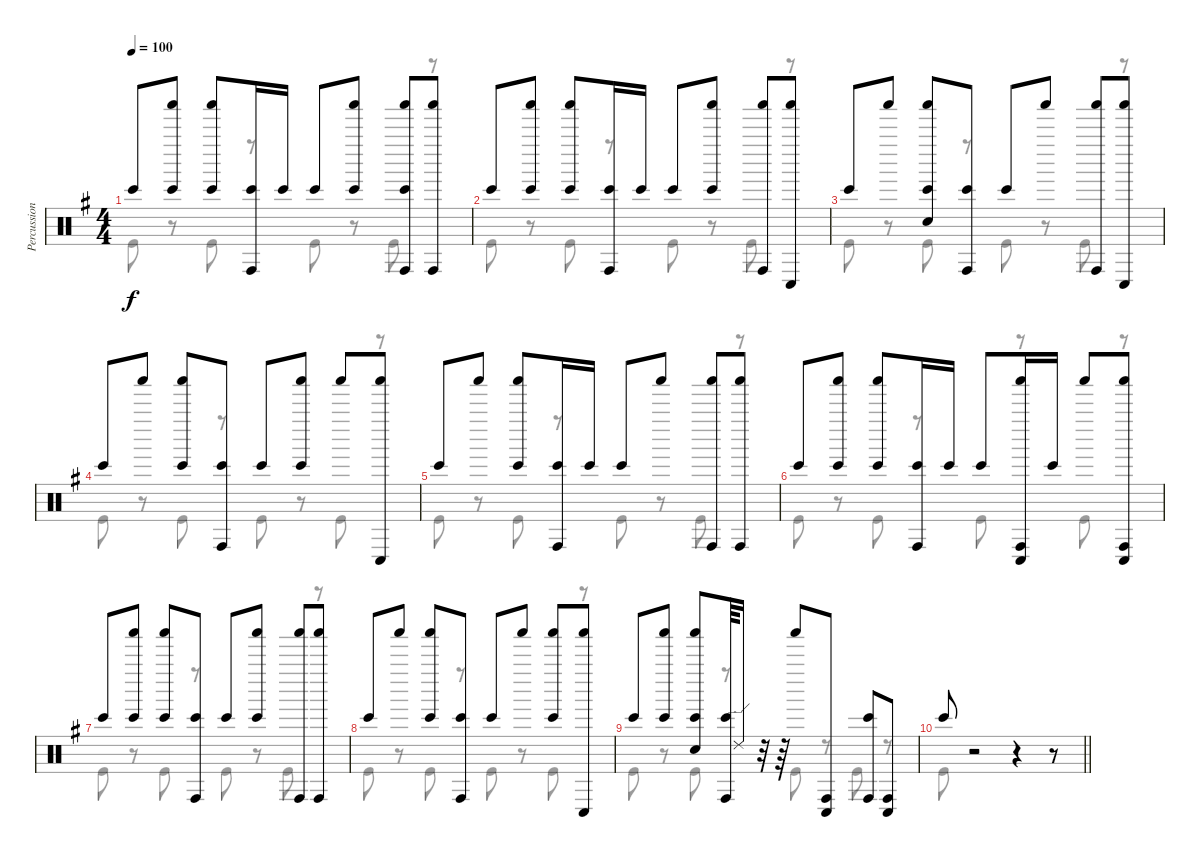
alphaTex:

\track ("Percussion 1" "Percussion") {solo instrument percussion}
\staff {score}
\articulation defaults
\voice
\ts (4 4)
\tempo 100
\clef neutral
\ks g "Bongo High (hit)".8{dy f}
("Bongo High (hit)" "Shaker (hit)").8 ("Shaker (hit)" "Bongo High (hit)").8 ("Bongo High (hit)" "Conga high (hit)").16 "Bongo High (hit)".16 "Bongo High (hit)".8 ("Bongo High (hit)" "Shaker (hit)").8 ("Bongo High (hit)" "Conga high (hit)" "Shaker (hit)").8 ("Shaker (hit)" "Conga high (hit)").8 |
"Bongo High (hit)".8 ("Bongo High (hit)" "Shaker (hit)").8 ("Shaker (hit)" "Bongo High (hit)").8 ("Bongo High (hit)" "Conga high (hit)").16 "Bongo High (hit)".16 "Bongo High (hit)".8 ("Bongo High (hit)" "Shaker (hit)").8 ("Shaker (hit)" "Conga high (hit)").8 ("Shaker (hit)" "Conga low (hit)").8 |
"Bongo High (hit)".8 "Shaker (hit)".8 ("Electric Snare (hit)" "Bongo High (hit)" "Shaker (hit)").8 ("Bongo High (hit)" "Conga high (hit)").8 "Bongo High (hit)".8 "Shaker (hit)".8 ("Shaker (hit)" "Conga high (hit)").8 ("Shaker (hit)" "Conga low (hit)").8 |
"Bongo High (hit)".8 "Shaker (hit)".8 ("Shaker (hit)" "Bongo High (hit)").8 ("Bongo High (hit)" "Conga high (hit)").8 "Bongo High (hit)".8 ("Bongo High (hit)" "Shaker (hit)").8 "Shaker (hit)".8 ("Shaker (hit)" "Conga low (hit)").8 |
"Bongo High (hit)".8 "Shaker (hit)".8 ("Shaker (hit)" "Bongo High (hit)").8 ("Bongo High (hit)" "Conga high (hit)").16 "Bongo High (hit)".16 "Bongo High (hit)".8 "Shaker (hit)".8 ("Shaker (hit)" "Conga high (hit)").8 ("Shaker (hit)" "Conga high (hit)").8 |
"Bongo High (hit)".8 ("Bongo High (hit)" "Shaker (hit)").8 ("Shaker (hit)" "Bongo High (hit)").8 ("Bongo High (hit)" "Conga high (hit)").16 "Bongo High (hit)".16 "Bongo High (hit)".8 ("Conga low (hit)" "Conga high (hit)" "Shaker (hit)").16 "Bongo High (hit)".16 "Shaker (hit)".8 ("Conga low (hit)" "Conga high (hit)" "Shaker (hit)").8 |
"Bongo High (hit)".8 ("Bongo High (hit)" "Shaker (hit)").8 ("Shaker (hit)" "Bongo High (hit)").8 ("Bongo High (hit)" "Conga high (hit)").8 "Bongo High (hit)".8 ("Bongo High (hit)" "Shaker (hit)").8 ("Shaker (hit)" "Conga high (hit)").8 ("Shaker (hit)" "Conga high (hit)").8 |
"Bongo High (hit)".8 "Shaker (hit)".8 ("Shaker (hit)" "Bongo High (hit)").8 ("Bongo High (hit)" "Conga high (hit)").8 "Bongo High (hit)".8 "Shaker (hit)".8 ("Bongo High (hit)" "Shaker (hit)").8 ("Shaker (hit)" "Conga low (hit)").8 |
"Bongo High (hit)".8 ("Bongo High (hit)" "Shaker (hit)").8 ("Electric Snare (hit)" "Bongo High (hit)" "Shaker (hit)").8 ("Bongo High (hit)" "Conga high (hit)").64 "Ride (edge) 2".16 r.32 r.64 "Shaker (hit)".8 ("Conga high (hit)" "Conga low (hit)").8 ("Bongo High (hit)" "Conga high (hit)").8 ("Conga high (hit)" "Conga low (hit)").8 |
\barLineRight lightlight "Bongo High (hit)".8
r.2 r.4 r.8
\voice
\clef neutral
\ottava regular
\simile none
\ks g "Kick (hit)".8{dy f}
r.8 "Kick (hit)".8 r.8 "Kick (hit)".8 r.8 "Kick (hit)".8 r.8 |
"Kick (hit)".8 r.8 "Kick (hit)".8 r.8 "Kick (hit)".8 r.8 "Kick (hit)".8 r.8 |
"Kick (hit)".8 r.8 "Kick (hit)".8 r.8 "Kick (hit)".8 r.8 "Kick (hit)".8 r.8 |
"Kick (hit)".8 r.8 "Kick (hit)".8 r.8 "Kick (hit)".8 r.8 "Kick (hit)".8 r.8 |
"Kick (hit)".8 r.8 "Kick (hit)".8 r.8 "Kick (hit)".8 r.8 "Kick (hit)".8 r.8 |
"Kick (hit)".8 r.8 "Kick (hit)".8 r.8 "Kick (hit)".8 r.8 "Kick (hit)".8 r.8 |
"Kick (hit)".8 r.8 "Kick (hit)".8 r.8 "Kick (hit)".8 r.8 "Kick (hit)".8 r.8 |
"Kick (hit)".8 r.8 "Kick (hit)".8 r.8 "Kick (hit)".8 r.8 "Kick (hit)".8 r.8 |
"Kick (hit)".8 r.8 "Kick (hit)".8 r.8 "Kick (hit)".8 r.8 "Kick (hit)".8 r.8 |
\barLineRight lightlight "Kick (hit)".8
r.2 r.4 r.8
